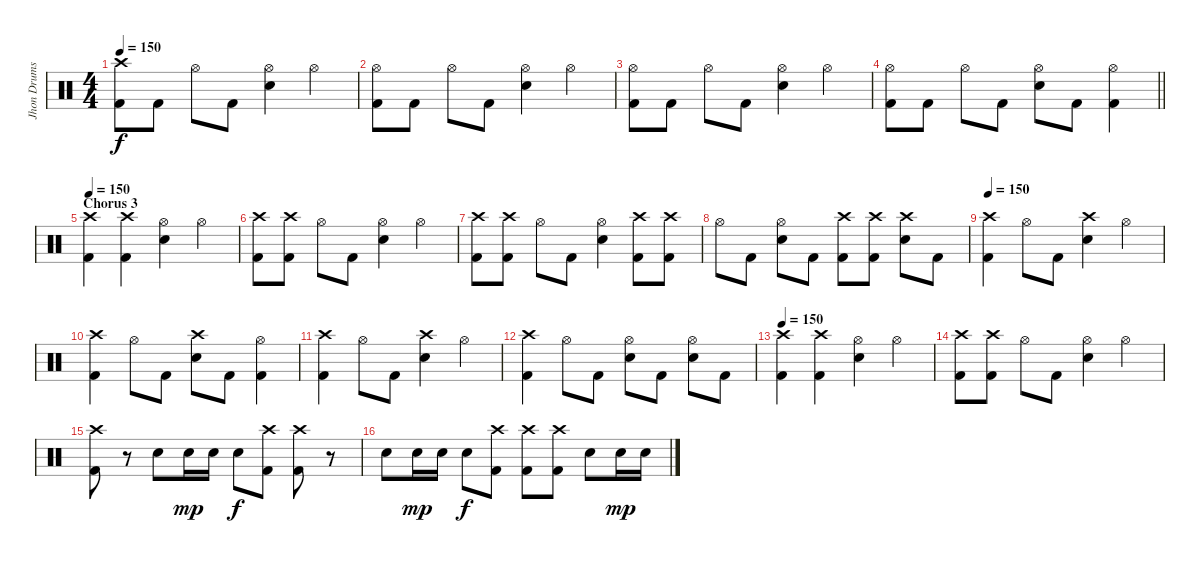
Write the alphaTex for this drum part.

\track ("Jhon Drums" "Jhon Drums") {instrument percussion}
\staff {score}
\articulation defaults
\ts (4 4)
\tempo 150
\clef neutral
\ks c
("Crash high (hit)" "Kick (hit) 2").8{dy f} "Kick (hit) 2".8 "Hi-Hat (open)".8 "Kick (hit) 2".8 ("Hi-Hat (open)" "Electric Snare (hit)").4 "Hi-Hat (open)".4 |
("Hi-Hat (open)" "Kick (hit) 2").8 "Kick (hit) 2".8 "Hi-Hat (open)".8 "Kick (hit) 2".8 ("Hi-Hat (open)" "Electric Snare (hit)").4 "Hi-Hat (open)".4 |
("Hi-Hat (open)" "Kick (hit) 2").8 "Kick (hit) 2".8 "Hi-Hat (open)".8 "Kick (hit) 2".8 ("Hi-Hat (open)" "Electric Snare (hit)").4 "Hi-Hat (open)".4 |
\barLineRight lightlight
("Hi-Hat (open)" "Kick (hit) 2").8 "Kick (hit) 2".8 "Hi-Hat (open)".8 "Kick (hit) 2".8 ("Hi-Hat (open)" "Electric Snare (hit)").8 "Kick (hit) 2".8 ("Hi-Hat (open)" "Kick (hit) 2").4 |
\section ("" "Chorus 3")
\tempo 150
("Crash high (hit)" "Kick (hit) 2").4 ("Crash high (hit)" "Kick (hit) 2").4 ("Hi-Hat (open)" "Electric Snare (hit)").4 "Hi-Hat (open)".4 |
("Crash high (hit)" "Kick (hit) 2").8 ("Crash high (hit)" "Kick (hit) 2").8 "Hi-Hat (open)".8 "Kick (hit) 2".8 ("Hi-Hat (open)" "Electric Snare (hit)").4 "Hi-Hat (open)".4 |
("Crash high (hit)" "Kick (hit) 2").8 ("Crash high (hit)" "Kick (hit) 2").8 "Hi-Hat (open)".8 "Kick (hit) 2".8 ("Hi-Hat (open)" "Electric Snare (hit)").4 ("Crash high (hit)" "Kick (hit) 2").8 ("Crash high (hit)" "Kick (hit) 2").8 |
"Hi-Hat (open)".8 "Kick (hit) 2".8 ("Hi-Hat (open)" "Electric Snare (hit)").8 "Kick (hit) 2".8 ("Crash high (hit)" "Kick (hit) 2").8 ("Crash high (hit)" "Kick (hit) 2").8 ("Crash high (hit)" "Electric Snare (hit)").8 "Kick (hit) 2".8 |
\tempo 150
("Crash high (hit)" "Kick (hit) 2").4 "Hi-Hat (open)".8 "Kick (hit) 2".8 ("Crash high (hit)" "Electric Snare (hit)").4 "Hi-Hat (open)".4 |
("Crash high (hit)" "Kick (hit) 2").4 "Hi-Hat (open)".8 "Kick (hit) 2".8 ("Crash high (hit)" "Electric Snare (hit)").8 "Kick (hit) 2".8 ("Hi-Hat (open)" "Kick (hit) 2").4 |
("Crash high (hit)" "Kick (hit) 2").4 "Hi-Hat (open)".8 "Kick (hit) 2".8 ("Crash high (hit)" "Electric Snare (hit)").4 "Hi-Hat (open)".4 |
("Crash high (hit)" "Kick (hit) 2").4 "Hi-Hat (open)".8 "Kick (hit) 2".8 ("Hi-Hat (open)" "Electric Snare (hit)").8 "Kick (hit) 2".8 ("Hi-Hat (open)" "Electric Snare (hit)").8 "Kick (hit) 2".8 |
\tempo 150
("Crash high (hit)" "Kick (hit) 2").4 ("Crash high (hit)" "Kick (hit) 2").4 ("Hi-Hat (open)" "Electric Snare (hit)").4 "Hi-Hat (open)".4 |
("Crash high (hit)" "Kick (hit) 2").8 ("Crash high (hit)" "Kick (hit) 2").8 "Hi-Hat (open)".8 "Kick (hit) 2".8 ("Hi-Hat (open)" "Electric Snare (hit)").4 "Hi-Hat (open)".4 |
("Crash high (hit)" "Kick (hit) 2").8 r.8 "Electric Snare (hit)".8 "Electric Snare (hit)".16{dy mp} "Electric Snare (hit)".16 "Electric Snare (hit)".8{dy f} ("Crash high (hit)" "Kick (hit) 2").8 ("Crash high (hit)" "Kick (hit) 2").8 r.8 |
"Electric Snare (hit)".8 "Electric Snare (hit)".16{dy mp} "Electric Snare (hit)".16 "Electric Snare (hit)".8{dy f} ("Crash high (hit)" "Kick (hit) 2").8 ("Crash high (hit)" "Kick (hit) 2").8 ("Crash high (hit)" "Kick (hit) 2").8 "Electric Snare (hit)".8 "Electric Snare (hit)".16{dy mp} "Electric Snare (hit)".16
